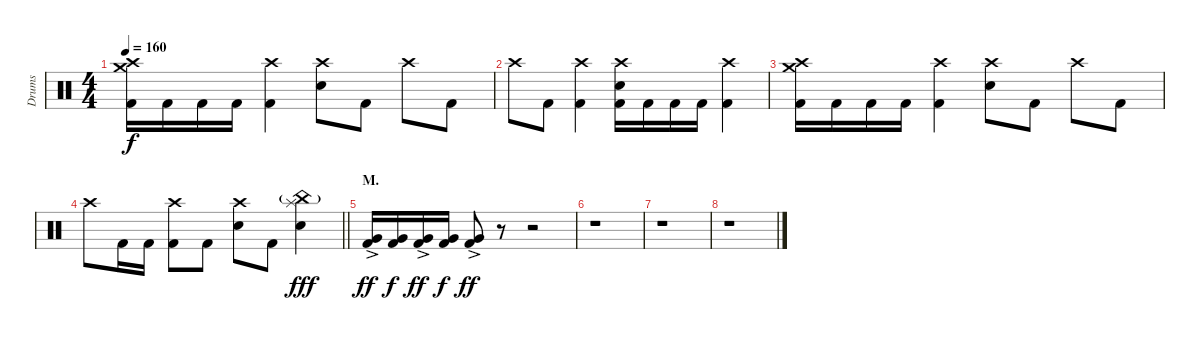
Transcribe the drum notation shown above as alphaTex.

\track ("Drums" "Drums") {instrument percussion}
\staff {score}
\articulation defaults
\ts (4 4)
\tempo 160
\clef neutral
\ks c
("Crash medium (hit)" "Crash high (hit)" "Kick (hit) 2").16{dy f} "Kick (hit) 2".16 "Kick (hit) 2".16 "Kick (hit) 2".16 ("Crash high (hit)" "Kick (hit) 2").4 ("Crash high (hit)" "Electric Snare (hit)").8 "Kick (hit) 2".8 "Crash high (hit)".8 "Kick (hit) 2".8 |
"Crash high (hit)".8 "Kick (hit) 2".8 ("Crash high (hit)" "Kick (hit) 2").4 ("Crash high (hit)" "Electric Snare (hit)" "Kick (hit) 2").16 "Kick (hit) 2".16 "Kick (hit) 2".16 "Kick (hit) 2".16 ("Crash high (hit)" "Kick (hit) 2").4 |
("Crash medium (hit)" "Crash high (hit)" "Kick (hit) 2").16 "Kick (hit) 2".16 "Kick (hit) 2".16 "Kick (hit) 2".16 ("Crash high (hit)" "Kick (hit) 2").4 ("Crash high (hit)" "Electric Snare (hit)").8 "Kick (hit) 2".8 "Crash high (hit)".8 "Kick (hit) 2".8 |
\barLineRight lightlight "Crash high (hit)".8 "Kick (hit) 2".16 "Kick (hit) 2".16
("Crash high (hit)" "Kick (hit) 2").8 "Kick (hit) 2".8 ("Crash high (hit)" "Electric Snare (hit)").8 "Kick (hit) 2".8 ("China (hit)"{g} "Splash (hit)" "Electric Snare (hit)").4{dy fff} |
\section ("" "M.")
("Very Low Tom (hit)"{ac} "Kick (hit) 2").16{dy ff} ("Very Low Tom (hit)" "Kick (hit) 2").16{dy f} ("Very Low Tom (hit)"{ac} "Kick (hit) 2").16{dy ff} ("Very Low Tom (hit)" "Kick (hit) 2").16{dy f} ("Very Low Tom (hit)"{ac} "Kick (hit) 2").8{dy ff} r.8 r.2 |
r.1 |
r.1 |
r.1
